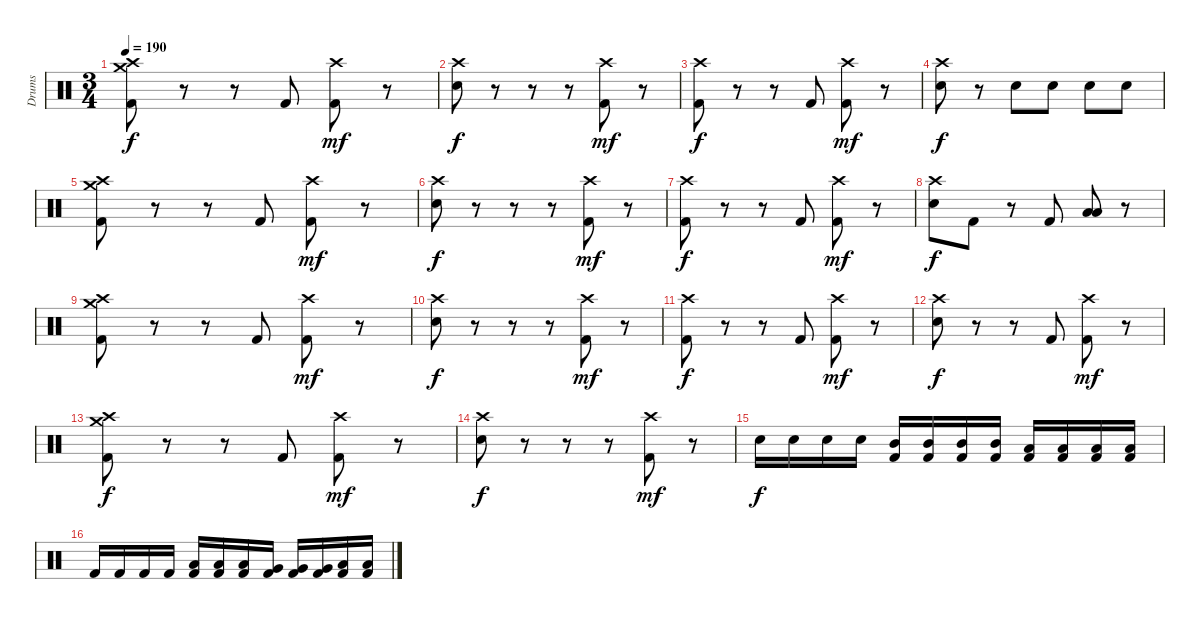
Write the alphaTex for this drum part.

\track ("Drums" "Drums") {instrument percussion}
\staff {score}
\articulation defaults
\ts (3 4)
\tempo 190
\clef neutral
\ks c
("Crash medium (hit)" "Crash high (hit)" "Kick (hit) 2").8{dy f} r.8 r.8 "Kick (hit) 2".8 ("Crash high (hit)" "Kick (hit) 2").8{dy mf} r.8 |
("Crash high (hit)" "Electric Snare (hit)").8{dy f} r.8 r.8 r.8 ("Crash high (hit)" "Kick (hit) 2").8{dy mf} r.8 |
("Crash high (hit)" "Kick (hit) 2").8{dy f} r.8 r.8 "Kick (hit) 2".8 ("Crash high (hit)" "Kick (hit) 2").8{dy mf} r.8 |
("Crash high (hit)" "Electric Snare (hit)").8{dy f} r.8 "Electric Snare (hit)".8 "Electric Snare (hit)".8 "Electric Snare (hit)".8 "Electric Snare (hit)".8 |
("Crash medium (hit)" "Crash high (hit)" "Kick (hit) 2").8 r.8 r.8 "Kick (hit) 2".8 ("Crash high (hit)" "Kick (hit) 2").8{dy mf} r.8 |
("Crash high (hit)" "Electric Snare (hit)").8{dy f} r.8 r.8 r.8 ("Crash high (hit)" "Kick (hit) 2").8{dy mf} r.8 |
("Crash high (hit)" "Kick (hit) 2").8{dy f} r.8 r.8 "Kick (hit) 2".8 ("Crash high (hit)" "Kick (hit) 2").8{dy mf} r.8 |
("Crash high (hit)" "Electric Snare (hit)").8{dy f} "Kick (hit) 2".8 r.8 "Kick (hit) 2".8 ("Low Floor Tom (hit)" "Low Floor Tom (hit)").8 r.8 |
("Crash medium (hit)" "Crash high (hit)" "Kick (hit) 2").8 r.8 r.8 "Kick (hit) 2".8 ("Crash high (hit)" "Kick (hit) 2").8{dy mf} r.8 |
("Crash high (hit)" "Electric Snare (hit)").8{dy f} r.8 r.8 r.8 ("Crash high (hit)" "Kick (hit) 2").8{dy mf} r.8 |
("Crash high (hit)" "Kick (hit) 2").8{dy f} r.8 r.8 "Kick (hit) 2".8 ("Crash high (hit)" "Kick (hit) 2").8{dy mf} r.8 |
("Crash high (hit)" "Electric Snare (hit)").8{dy f} r.8 r.8 "Kick (hit) 2".8 ("Crash high (hit)" "Kick (hit) 2").8{dy mf} r.8 |
("Crash medium (hit)" "Crash high (hit)" "Kick (hit) 2").8{dy f} r.8 r.8 "Kick (hit) 2".8 ("Crash high (hit)" "Kick (hit) 2").8{dy mf} r.8 |
("Crash high (hit)" "Electric Snare (hit)").8{dy f} r.8 r.8 r.8 ("Crash high (hit)" "Kick (hit) 2").8{dy mf} r.8 |
"Electric Snare (hit)".16{dy f} "Electric Snare (hit)".16 "Electric Snare (hit)".16 "Electric Snare (hit)".16 ("Mid Tom (hit)" "Kick (hit) 2").16 ("Mid Tom (hit)" "Kick (hit) 2").16 ("Mid Tom (hit)" "Kick (hit) 2").16 ("Mid Tom (hit)" "Kick (hit) 2").16 ("Low Tom (hit)" "Kick (hit) 2").16 ("Low Tom (hit)" "Kick (hit) 2").16 ("Low Tom (hit)" "Kick (hit) 2").16 ("Low Tom (hit)" "Kick (hit) 2").16 |
"Kick (hit) 2".16 "Kick (hit) 2".16 "Kick (hit) 2".16 "Kick (hit) 2".16 ("Low Tom (hit)" "Kick (hit) 2").16 ("Low Tom (hit)" "Kick (hit) 2").16 ("Low Tom (hit)" "Kick (hit) 2").16 ("Very Low Tom (hit)" "Kick (hit) 2").16 ("Very Low Tom (hit)" "Kick (hit) 2").16 ("Very Low Tom (hit)" "Kick (hit) 2").16 ("Low Floor Tom (hit)" "Kick (hit) 2").16 ("Low Floor Tom (hit)" "Kick (hit) 2").16
